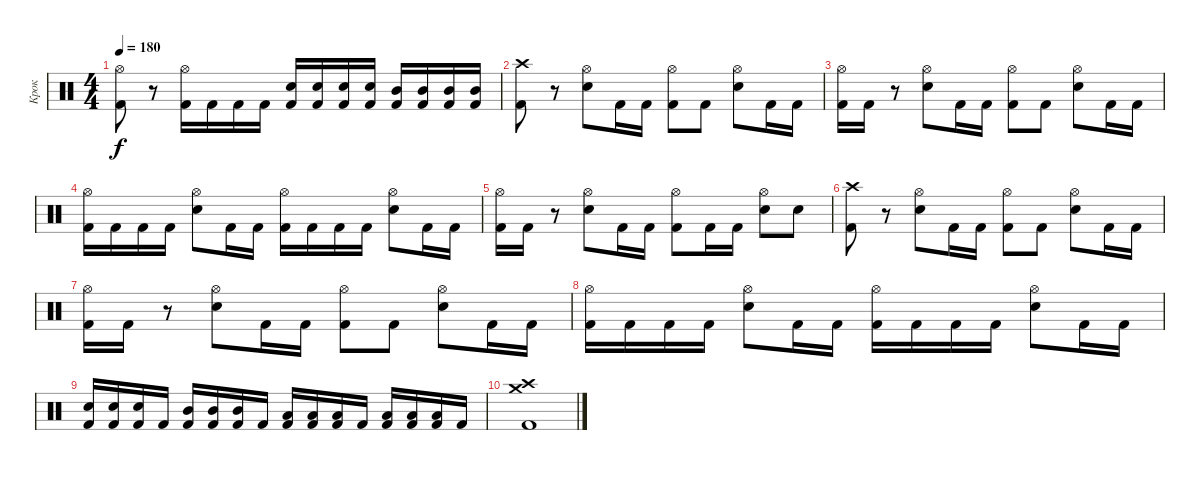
\track ("Крок" "Крок") {instrument percussion}
\staff {score}
\articulation defaults
\ts (4 4)
\tempo 180
\clef neutral
\ks c
("Kick (hit) 2" "Hi-Hat (open)").8{dy f} r.8 ("Kick (hit) 2" "Hi-Hat (open)").16 "Kick (hit) 2".16 "Kick (hit) 2".16 "Kick (hit) 2".16 ("Electric Snare (hit)" "Kick (hit) 2").16 ("Electric Snare (hit)" "Kick (hit) 2").16 ("Electric Snare (hit)" "Kick (hit) 2").16 ("Electric Snare (hit)" "Kick (hit) 2").16 ("Mid Tom (hit)" "Kick (hit) 2").16 ("Mid Tom (hit)" "Kick (hit) 2").16 ("Mid Tom (hit)" "Kick (hit) 2").16 ("Mid Tom (hit)" "Kick (hit) 2").16 |
("Crash high (hit)" "Kick (hit) 2").8 r.8 ("Hi-Hat (open)" "Electric Snare (hit)").8 "Kick (hit) 2".16 "Kick (hit) 2".16 ("Kick (hit) 2" "Hi-Hat (open)").8 "Kick (hit) 2".8 ("Hi-Hat (open)" "Electric Snare (hit)").8 "Kick (hit) 2".16 "Kick (hit) 2".16 |
("Kick (hit) 2" "Hi-Hat (open)").16 "Kick (hit) 2".16 r.8 ("Hi-Hat (open)" "Electric Snare (hit)").8 "Kick (hit) 2".16 "Kick (hit) 2".16 ("Kick (hit) 2" "Hi-Hat (open)").8 "Kick (hit) 2".8 ("Hi-Hat (open)" "Electric Snare (hit)").8 "Kick (hit) 2".16 "Kick (hit) 2".16 |
("Kick (hit) 2" "Hi-Hat (open)").16 "Kick (hit) 2".16 "Kick (hit) 2".16 "Kick (hit) 2".16 ("Hi-Hat (open)" "Electric Snare (hit)").8 "Kick (hit) 2".16 "Kick (hit) 2".16 ("Kick (hit) 2" "Hi-Hat (open)").16 "Kick (hit) 2".16 "Kick (hit) 2".16 "Kick (hit) 2".16 ("Hi-Hat (open)" "Electric Snare (hit)").8 "Kick (hit) 2".16 "Kick (hit) 2".16 |
("Kick (hit) 2" "Hi-Hat (open)").16 "Kick (hit) 2".16 r.8 ("Hi-Hat (open)" "Electric Snare (hit)").8 "Kick (hit) 2".16 "Kick (hit) 2".16 ("Kick (hit) 2" "Hi-Hat (open)").8 "Kick (hit) 2".16 "Kick (hit) 2".16 ("Hi-Hat (open)" "Electric Snare (hit)").8 "Electric Snare (hit)".8 |
("Crash high (hit)" "Kick (hit) 2").8 r.8 ("Hi-Hat (open)" "Electric Snare (hit)").8 "Kick (hit) 2".16 "Kick (hit) 2".16 ("Kick (hit) 2" "Hi-Hat (open)").8 "Kick (hit) 2".8 ("Hi-Hat (open)" "Electric Snare (hit)").8 "Kick (hit) 2".16 "Kick (hit) 2".16 |
("Kick (hit) 2" "Hi-Hat (open)").16 "Kick (hit) 2".16 r.8 ("Hi-Hat (open)" "Electric Snare (hit)").8 "Kick (hit) 2".16 "Kick (hit) 2".16 ("Kick (hit) 2" "Hi-Hat (open)").8 "Kick (hit) 2".8 ("Hi-Hat (open)" "Electric Snare (hit)").8 "Kick (hit) 2".16 "Kick (hit) 2".16 |
("Kick (hit) 2" "Hi-Hat (open)").16 "Kick (hit) 2".16 "Kick (hit) 2".16 "Kick (hit) 2".16 ("Hi-Hat (open)" "Electric Snare (hit)").8 "Kick (hit) 2".16 "Kick (hit) 2".16 ("Kick (hit) 2" "Hi-Hat (open)").16 "Kick (hit) 2".16 "Kick (hit) 2".16 "Kick (hit) 2".16 ("Hi-Hat (open)" "Electric Snare (hit)").8 "Kick (hit) 2".16 "Kick (hit) 2".16 |
("Kick (hit) 2" "Electric Snare (hit)").16 ("Kick (hit) 2" "Electric Snare (hit)").16 ("Kick (hit) 2" "Electric Snare (hit)").16 "Kick (hit) 2".16 ("Kick (hit) 2" "Mid Tom (hit)").16 ("Kick (hit) 2" "Mid Tom (hit)").16 ("Kick (hit) 2" "Mid Tom (hit)").16 "Kick (hit) 2".16 ("Kick (hit) 2" "Low Tom (hit)").16 ("Kick (hit) 2" "Low Tom (hit)").16 ("Kick (hit) 2" "Low Tom (hit)").16 "Kick (hit) 2".16 ("Kick (hit) 2" "Low Floor Tom (hit)").16 ("Kick (hit) 2" "Low Floor Tom (hit)").16 ("Kick (hit) 2" "Low Floor Tom (hit)").16 "Kick (hit) 2".16 |
("Kick (hit) 2" "Crash medium (hit)" "Crash high (hit)").1
